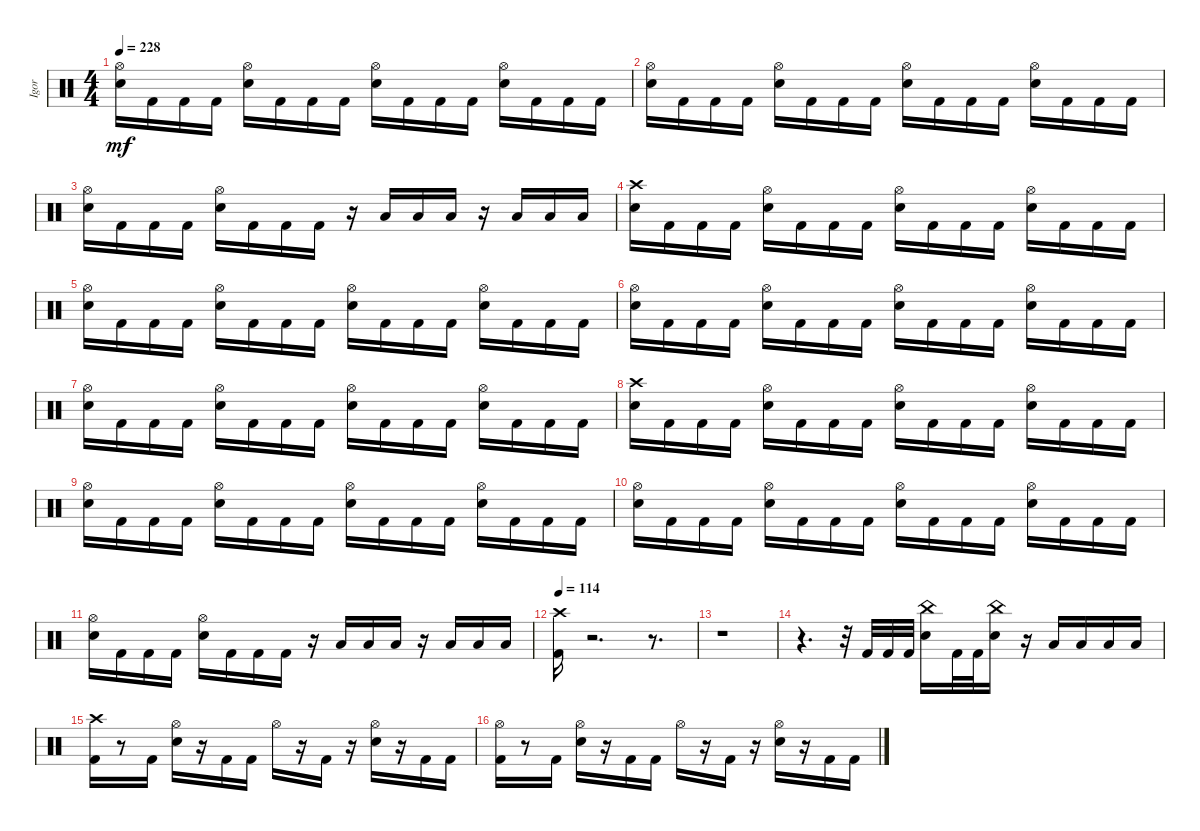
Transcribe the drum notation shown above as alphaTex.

\track ("Igor" "Igor") {instrument percussion}
\staff {score}
\articulation defaults
\ts (4 4)
\tempo 228
\clef neutral
\ks c
("Snare (hit) 2" "Hi-Hat (open)").16{dy mf} "Kick (hit) 2".16 "Kick (hit) 2".16 "Kick (hit) 2".16 ("Snare (hit) 2" "Hi-Hat (open)").16 "Kick (hit) 2".16 "Kick (hit) 2".16 "Kick (hit) 2".16 ("Snare (hit) 2" "Hi-Hat (open)").16 "Kick (hit) 2".16 "Kick (hit) 2".16 "Kick (hit) 2".16 ("Snare (hit) 2" "Hi-Hat (open)").16 "Kick (hit) 2".16 "Kick (hit) 2".16 "Kick (hit) 2".16 |
("Snare (hit) 2" "Hi-Hat (open)").16 "Kick (hit) 2".16 "Kick (hit) 2".16 "Kick (hit) 2".16 ("Snare (hit) 2" "Hi-Hat (open)").16 "Kick (hit) 2".16 "Kick (hit) 2".16 "Kick (hit) 2".16 ("Snare (hit) 2" "Hi-Hat (open)").16 "Kick (hit) 2".16 "Kick (hit) 2".16 "Kick (hit) 2".16 ("Snare (hit) 2" "Hi-Hat (open)").16 "Kick (hit) 2".16 "Kick (hit) 2".16 "Kick (hit) 2".16 |
("Snare (hit) 2" "Hi-Hat (open)").16 "Kick (hit) 2".16 "Kick (hit) 2".16 "Kick (hit) 2".16 ("Snare (hit) 2" "Hi-Hat (open)").16 "Kick (hit) 2".16 "Kick (hit) 2".16 "Kick (hit) 2".16 r.16 "Low Tom (hit)".16 "Low Tom (hit)".16 "Low Tom (hit)".16 r.16 "Low Floor Tom (hit)".16 "Low Floor Tom (hit)".16 "Low Floor Tom (hit)".16 |
("Snare (hit) 2" "Crash high (hit)").16 "Kick (hit) 2".16 "Kick (hit) 2".16 "Kick (hit) 2".16 ("Snare (hit) 2" "Hi-Hat (open)").16 "Kick (hit) 2".16 "Kick (hit) 2".16 "Kick (hit) 2".16 ("Snare (hit) 2" "Hi-Hat (open)").16 "Kick (hit) 2".16 "Kick (hit) 2".16 "Kick (hit) 2".16 ("Snare (hit) 2" "Hi-Hat (open)").16 "Kick (hit) 2".16 "Kick (hit) 2".16 "Kick (hit) 2".16 |
("Snare (hit) 2" "Hi-Hat (open)").16 "Kick (hit) 2".16 "Kick (hit) 2".16 "Kick (hit) 2".16 ("Snare (hit) 2" "Hi-Hat (open)").16 "Kick (hit) 2".16 "Kick (hit) 2".16 "Kick (hit) 2".16 ("Snare (hit) 2" "Hi-Hat (open)").16 "Kick (hit) 2".16 "Kick (hit) 2".16 "Kick (hit) 2".16 ("Snare (hit) 2" "Hi-Hat (open)").16 "Kick (hit) 2".16 "Kick (hit) 2".16 "Kick (hit) 2".16 |
("Snare (hit) 2" "Hi-Hat (open)").16 "Kick (hit) 2".16 "Kick (hit) 2".16 "Kick (hit) 2".16 ("Snare (hit) 2" "Hi-Hat (open)").16 "Kick (hit) 2".16 "Kick (hit) 2".16 "Kick (hit) 2".16 ("Snare (hit) 2" "Hi-Hat (open)").16 "Kick (hit) 2".16 "Kick (hit) 2".16 "Kick (hit) 2".16 ("Snare (hit) 2" "Hi-Hat (open)").16 "Kick (hit) 2".16 "Kick (hit) 2".16 "Kick (hit) 2".16 |
("Snare (hit) 2" "Hi-Hat (open)").16 "Kick (hit) 2".16 "Kick (hit) 2".16 "Kick (hit) 2".16 ("Snare (hit) 2" "Hi-Hat (open)").16 "Kick (hit) 2".16 "Kick (hit) 2".16 "Kick (hit) 2".16 ("Snare (hit) 2" "Hi-Hat (open)").16 "Kick (hit) 2".16 "Kick (hit) 2".16 "Kick (hit) 2".16 ("Snare (hit) 2" "Hi-Hat (open)").16 "Kick (hit) 2".16 "Kick (hit) 2".16 "Kick (hit) 2".16 |
("Snare (hit) 2" "Crash high (hit)").16 "Kick (hit) 2".16 "Kick (hit) 2".16 "Kick (hit) 2".16 ("Snare (hit) 2" "Hi-Hat (open)").16 "Kick (hit) 2".16 "Kick (hit) 2".16 "Kick (hit) 2".16 ("Snare (hit) 2" "Hi-Hat (open)").16 "Kick (hit) 2".16 "Kick (hit) 2".16 "Kick (hit) 2".16 ("Snare (hit) 2" "Hi-Hat (open)").16 "Kick (hit) 2".16 "Kick (hit) 2".16 "Kick (hit) 2".16 |
("Snare (hit) 2" "Hi-Hat (open)").16 "Kick (hit) 2".16 "Kick (hit) 2".16 "Kick (hit) 2".16 ("Snare (hit) 2" "Hi-Hat (open)").16 "Kick (hit) 2".16 "Kick (hit) 2".16 "Kick (hit) 2".16 ("Snare (hit) 2" "Hi-Hat (open)").16 "Kick (hit) 2".16 "Kick (hit) 2".16 "Kick (hit) 2".16 ("Snare (hit) 2" "Hi-Hat (open)").16 "Kick (hit) 2".16 "Kick (hit) 2".16 "Kick (hit) 2".16 |
("Snare (hit) 2" "Hi-Hat (open)").16 "Kick (hit) 2".16 "Kick (hit) 2".16 "Kick (hit) 2".16 ("Snare (hit) 2" "Hi-Hat (open)").16 "Kick (hit) 2".16 "Kick (hit) 2".16 "Kick (hit) 2".16 ("Snare (hit) 2" "Hi-Hat (open)").16 "Kick (hit) 2".16 "Kick (hit) 2".16 "Kick (hit) 2".16 ("Snare (hit) 2" "Hi-Hat (open)").16 "Kick (hit) 2".16 "Kick (hit) 2".16 "Kick (hit) 2".16 |
("Snare (hit) 2" "Hi-Hat (open)").16 "Kick (hit) 2".16 "Kick (hit) 2".16 "Kick (hit) 2".16 ("Snare (hit) 2" "Hi-Hat (open)").16 "Kick (hit) 2".16 "Kick (hit) 2".16 "Kick (hit) 2".16 r.16 "Low Tom (hit)".16 "Low Tom (hit)".16 "Low Tom (hit)".16 r.16 "Low Floor Tom (hit)".16 "Low Floor Tom (hit)".16 "Low Floor Tom (hit)".16 |
\tempo 114
("Kick (hit) 2" "Crash high (hit)").16 r.2{d} r.8{d} |
r.1 |
r.4{d} r.32 "Kick (hit) 2".32 "Kick (hit) 2".32 "Kick (hit) 2".32 ("Snare (hit) 2" "China (hit)").16 "Kick (hit) 2".32 "Kick (hit) 2".32 ("Snare (hit) 2" "China (hit)").16 r.16 "Low Tom (hit)".16 "Low Tom (hit)".16 "Low Tom (hit)".16 "Low Tom (hit)".16 |
("Crash high (hit)" "Kick (hit) 2").16 r.8 "Kick (hit) 2".16 ("Snare (hit) 2" "Hi-Hat (open)").16 r.16 "Kick (hit) 2".16 "Kick (hit) 2".16 "Hi-Hat (open)".16 r.16 "Kick (hit) 2".16 r.16 ("Snare (hit) 2" "Hi-Hat (open)").16 r.16 "Kick (hit) 2".16 "Kick (hit) 2".16 |
("Kick (hit) 2" "Hi-Hat (open)").16 r.8 "Kick (hit) 2".16 ("Snare (hit) 2" "Hi-Hat (open)").16 r.16 "Kick (hit) 2".16 "Kick (hit) 2".16 "Hi-Hat (open)".16 r.16 "Kick (hit) 2".16 r.16 ("Snare (hit) 2" "Hi-Hat (open)").16 r.16 "Kick (hit) 2".16 "Kick (hit) 2".16
